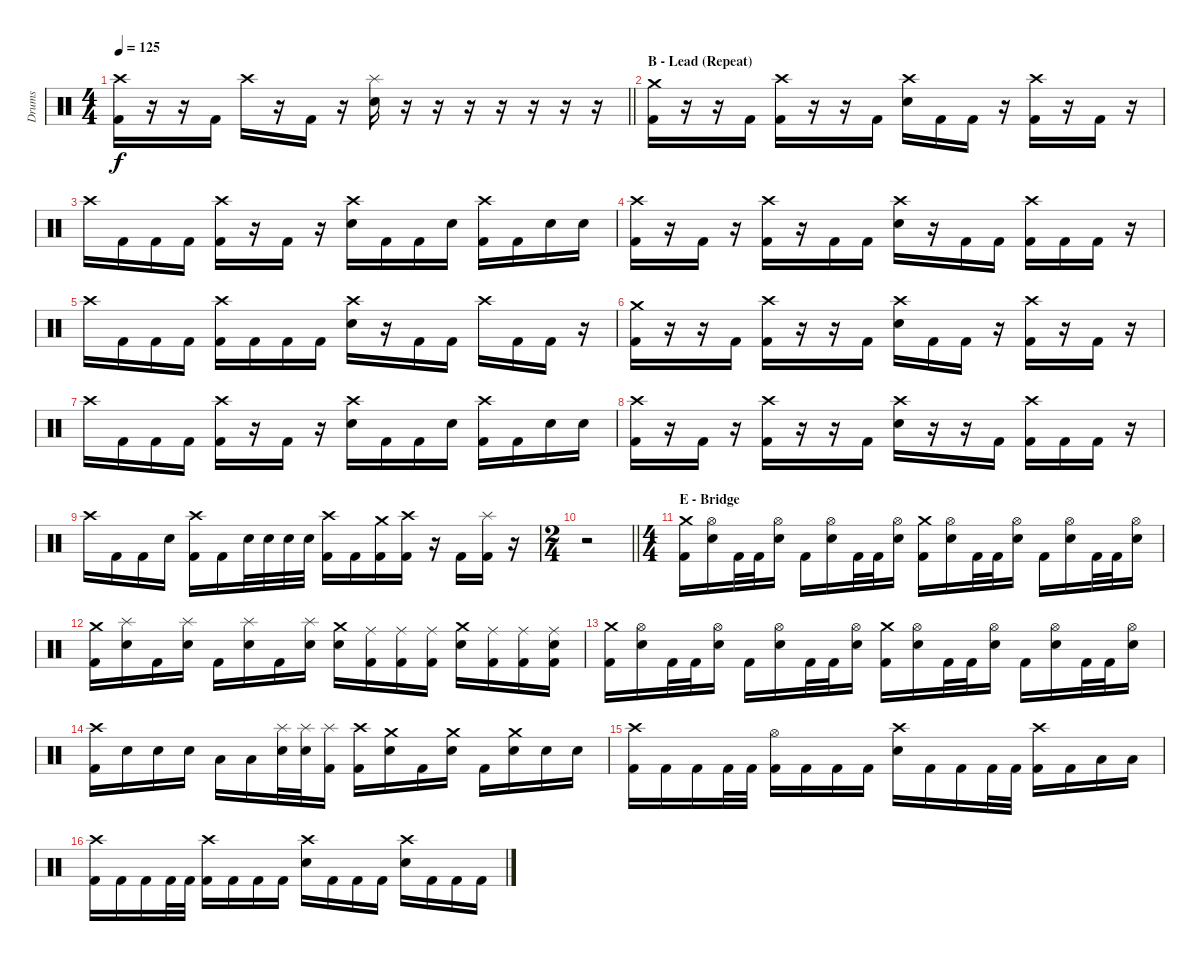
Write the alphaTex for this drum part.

\track ("Drums" "Drums") {instrument percussion}
\staff {score}
\articulation defaults
\ts (4 4)
\tempo 125
\clef neutral
\barLineRight lightlight
\ks c
("Crash high (hit)" "Kick (hit) 2").16{dy f} r.16 r.16 "Kick (hit) 2".16 "Crash high (hit)".16 r.16 "Kick (hit) 2".16 r.16 ("Splash (hit)" "Electric Snare (hit)").16 r.16 r.16 r.16 r.16 r.16 r.16 r.16 |
\section ("" "B - Lead (Repeat)")
("Crash medium (hit)" "Kick (hit) 2").16 r.16 r.16 "Kick (hit) 2".16 ("Crash high (hit)" "Kick (hit) 2").16 r.16 r.16 "Kick (hit) 2".16 ("Crash high (hit)" "Electric Snare (hit)").16 "Kick (hit) 2".16 "Kick (hit) 2".16 r.16 ("Crash high (hit)" "Kick (hit) 2").16 r.16 "Kick (hit) 2".16 r.16 |
"Crash high (hit)".16 "Kick (hit) 2".16 "Kick (hit) 2".16 "Kick (hit) 2".16 ("Crash high (hit)" "Kick (hit) 2").16 r.16 "Kick (hit) 2".16 r.16 ("Crash high (hit)" "Electric Snare (hit)").16 "Kick (hit) 2".16 "Kick (hit) 2".16 "Electric Snare (hit)".16 ("Crash high (hit)" "Kick (hit) 2").16 "Kick (hit) 2".16 "Electric Snare (hit)".16 "Electric Snare (hit)".16 |
("Crash high (hit)" "Kick (hit) 2").16 r.16 "Kick (hit) 2".16 r.16 ("Crash high (hit)" "Kick (hit) 2").16 r.16 "Kick (hit) 2".16 "Kick (hit) 2".16 ("Crash high (hit)" "Electric Snare (hit)").16 r.16 "Kick (hit) 2".16 "Kick (hit) 2".16 ("Crash high (hit)" "Kick (hit) 2").16 "Kick (hit) 2".16 "Kick (hit) 2".16 r.16 |
"Crash high (hit)".16 "Kick (hit) 2".16 "Kick (hit) 2".16 "Kick (hit) 2".16 ("Crash high (hit)" "Kick (hit) 2").16 "Kick (hit) 2".16 "Kick (hit) 2".16 "Kick (hit) 2".16 ("Crash high (hit)" "Electric Snare (hit)").16 r.16 "Kick (hit) 2".16 "Kick (hit) 2".16 "Crash high (hit)".16 "Kick (hit) 2".16 "Kick (hit) 2".16 r.16 |
("Crash medium (hit)" "Kick (hit) 2").16 r.16 r.16 "Kick (hit) 2".16 ("Crash high (hit)" "Kick (hit) 2").16 r.16 r.16 "Kick (hit) 2".16 ("Crash high (hit)" "Electric Snare (hit)").16 "Kick (hit) 2".16 "Kick (hit) 2".16 r.16 ("Crash high (hit)" "Kick (hit) 2").16 r.16 "Kick (hit) 2".16 r.16 |
"Crash high (hit)".16 "Kick (hit) 2".16 "Kick (hit) 2".16 "Kick (hit) 2".16 ("Crash high (hit)" "Kick (hit) 2").16 r.16 "Kick (hit) 2".16 r.16 ("Crash high (hit)" "Electric Snare (hit)").16 "Kick (hit) 2".16 "Kick (hit) 2".16 "Electric Snare (hit)".16 ("Crash high (hit)" "Kick (hit) 2").16 "Kick (hit) 2".16 "Electric Snare (hit)".16 "Electric Snare (hit)".16 |
("Crash high (hit)" "Kick (hit) 2").16 r.16 "Kick (hit) 2".16 r.16 ("Crash high (hit)" "Kick (hit) 2").16 r.16 r.16 "Kick (hit) 2".16 ("Crash high (hit)" "Electric Snare (hit)").16 r.16 r.16 "Kick (hit) 2".16 ("Crash high (hit)" "Kick (hit) 2").16 "Kick (hit) 2".16 "Kick (hit) 2".16 r.16 |
"Crash high (hit)".16 "Kick (hit) 2".16 "Kick (hit) 2".16 "Electric Snare (hit)".16 ("Crash high (hit)" "Kick (hit) 2").16 "Kick (hit) 2".16 "Electric Snare (hit)".32 "Electric Snare (hit)".32 "Electric Snare (hit)".32 "Electric Snare (hit)".32 ("Crash high (hit)" "Kick (hit) 2").16 "Kick (hit) 2".16 ("Crash medium (hit)" "Kick (hit) 2").16 ("Crash high (hit)" "Kick (hit) 2").16 r.16 "Kick (hit) 2".16 ("Splash (hit)" "Kick (hit) 2").16 r.16 |
\ts (2 4)
\barLineRight lightlight
r.2 |
\ts (4 4)
\section ("" "E - Bridge")
("Crash medium (hit)" "Kick (hit) 2").16 ("Hi-Hat (open)" "Electric Snare (hit)").16 "Kick (hit) 2".32 "Kick (hit) 2".32 ("Hi-Hat (open)" "Electric Snare (hit)").16 "Kick (hit) 2".16 ("Hi-Hat (open)" "Electric Snare (hit)").16 "Kick (hit) 2".32 "Kick (hit) 2".32 ("Hi-Hat (open)" "Electric Snare (hit)").16 ("Crash medium (hit)" "Kick (hit) 2").16 ("Hi-Hat (open)" "Electric Snare (hit)").16 "Kick (hit) 2".32 "Kick (hit) 2".32 ("Hi-Hat (open)" "Electric Snare (hit)").16 "Kick (hit) 2".16 ("Hi-Hat (open)" "Electric Snare (hit)").16 "Kick (hit) 2".32 "Kick (hit) 2".32 ("Hi-Hat (open)" "Electric Snare (hit)").16 |
("Crash medium (hit)" "Kick (hit) 2").16 ("Splash (hit)" "Electric Snare (hit)").16 "Kick (hit) 2".16 ("Splash (hit)" "Electric Snare (hit)").16 "Kick (hit) 2".16 ("Splash (hit)" "Electric Snare (hit)").16 "Kick (hit) 2".16 ("Splash (hit)" "Electric Snare (hit)").16 ("Crash medium (hit)" "Electric Snare (hit)").16 ("Ride (middle)" "Kick (hit) 2").16 ("Ride (middle)" "Kick (hit) 2").16 ("Ride (middle)" "Kick (hit) 2").16 ("Crash medium (hit)" "Electric Snare (hit)").16 ("Ride (middle)" "Kick (hit) 2").16 ("Ride (middle)" "Kick (hit) 2").16 ("Ride (middle)" "Electric Snare (hit)" "Kick (hit) 2").16 |
("Crash medium (hit)" "Kick (hit) 2").16 ("Hi-Hat (open)" "Electric Snare (hit)").16 "Kick (hit) 2".32 "Kick (hit) 2".32 ("Hi-Hat (open)" "Electric Snare (hit)").16 "Kick (hit) 2".16 ("Hi-Hat (open)" "Electric Snare (hit)").16 "Kick (hit) 2".32 "Kick (hit) 2".32 ("Hi-Hat (open)" "Electric Snare (hit)").16 ("Crash medium (hit)" "Kick (hit) 2").16 ("Hi-Hat (open)" "Electric Snare (hit)").16 "Kick (hit) 2".32 "Kick (hit) 2".32 ("Hi-Hat (open)" "Electric Snare (hit)").16 "Kick (hit) 2".16 ("Hi-Hat (open)" "Electric Snare (hit)").16 "Kick (hit) 2".32 "Kick (hit) 2".32 ("Hi-Hat (open)" "Electric Snare (hit)").16 |
("Crash high (hit)" "Kick (hit) 2").16 "Electric Snare (hit)".16 "Electric Snare (hit)".16 "Electric Snare (hit)".16 "Low Tom (hit)".16 "Low Tom (hit)".16 ("Splash (hit)" "Electric Snare (hit)").32 ("Splash (hit)" "Electric Snare (hit)").32 ("Splash (hit)" "Kick (hit) 2").16 ("Crash high (hit)" "Kick (hit) 2").16 ("Crash medium (hit)" "Electric Snare (hit)").16 "Kick (hit) 2".16 ("Crash medium (hit)" "Electric Snare (hit)").16 "Kick (hit) 2".16 ("Crash medium (hit)" "Electric Snare (hit)").16 "Electric Snare (hit)".16 "Electric Snare (hit)".16 |
("Crash high (hit)" "Kick (hit) 2").16 "Kick (hit) 2".16 "Kick (hit) 2".16 "Kick (hit) 2".32 "Kick (hit) 2".32 ("Hi-Hat (open)" "Kick (hit) 2").16 "Kick (hit) 2".16 "Kick (hit) 2".16 "Kick (hit) 2".16 ("Crash high (hit)" "Electric Snare (hit)").16 "Kick (hit) 2".16 "Kick (hit) 2".16 "Kick (hit) 2".32 "Kick (hit) 2".32 ("Crash high (hit)" "Kick (hit) 2").16 "Kick (hit) 2".16 "Low Tom (hit)".16 "Low Tom (hit)".16 |
("Crash high (hit)" "Kick (hit) 2").16 "Kick (hit) 2".16 "Kick (hit) 2".16 "Kick (hit) 2".32 "Kick (hit) 2".32 ("Crash high (hit)" "Kick (hit) 2").16 "Kick (hit) 2".16 "Kick (hit) 2".16 "Kick (hit) 2".16 ("Crash high (hit)" "Electric Snare (hit)").16 "Kick (hit) 2".16 "Kick (hit) 2".16 "Kick (hit) 2".16 ("Crash high (hit)" "Electric Snare (hit)").16 "Kick (hit) 2".16 "Kick (hit) 2".16 "Kick (hit) 2".16
